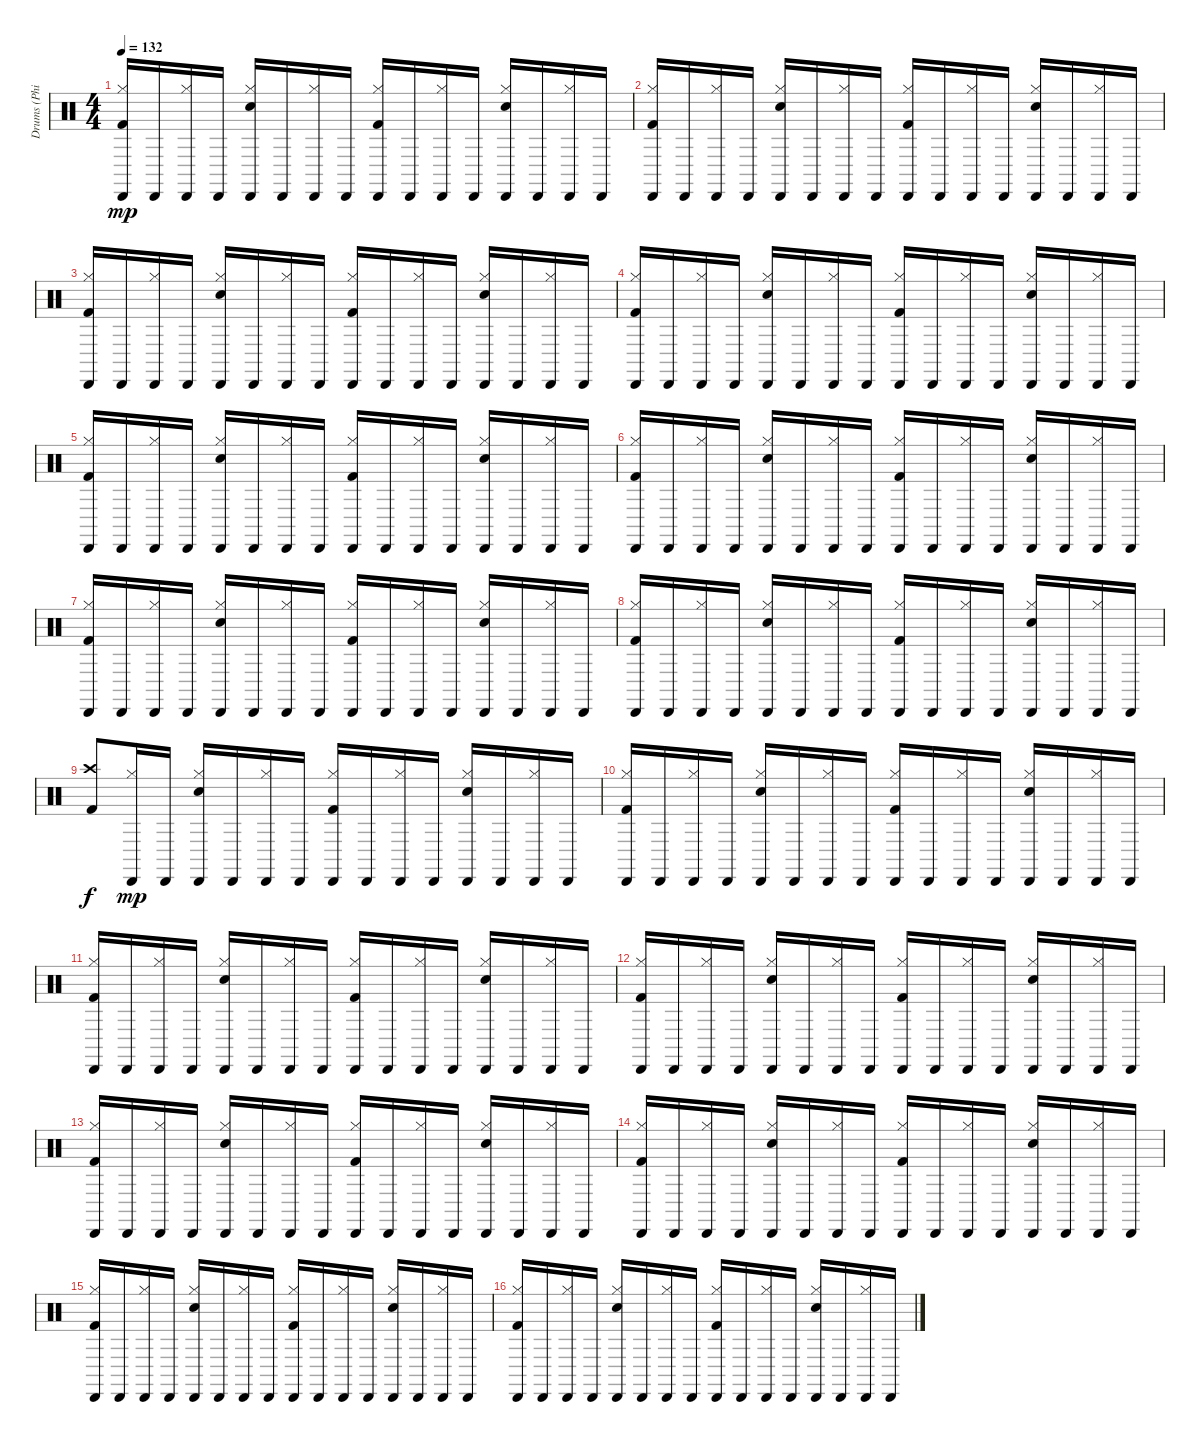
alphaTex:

\track ("Drums (Phil Rudd)" "Drums (Phi") {instrument percussion}
\staff {score}
\articulation defaults
\ts (4 4)
\tempo 132
\clef neutral
\ks c
("Hi-Hat (closed)" "Cabasa (hit)" "Kick (hit) 2").16{dy mp} "Cabasa (hit)".16 ("Hi-Hat (closed)" "Cabasa (hit)").16 "Cabasa (hit)".16 ("Hi-Hat (closed)" "Cabasa (hit)" "Snare (hit) 2").16 "Cabasa (hit)".16 ("Hi-Hat (closed)" "Cabasa (hit)").16 "Cabasa (hit)".16 ("Hi-Hat (closed)" "Cabasa (hit)" "Kick (hit) 2").16 "Cabasa (hit)".16 ("Hi-Hat (closed)" "Cabasa (hit)").16 "Cabasa (hit)".16 ("Hi-Hat (closed)" "Cabasa (hit)" "Snare (hit) 2").16 "Cabasa (hit)".16 ("Hi-Hat (closed)" "Cabasa (hit)").16 "Cabasa (hit)".16 |
("Hi-Hat (closed)" "Cabasa (hit)" "Kick (hit) 2").16 "Cabasa (hit)".16 ("Hi-Hat (closed)" "Cabasa (hit)").16 "Cabasa (hit)".16 ("Hi-Hat (closed)" "Cabasa (hit)" "Snare (hit) 2").16 "Cabasa (hit)".16 ("Hi-Hat (closed)" "Cabasa (hit)").16 "Cabasa (hit)".16 ("Hi-Hat (closed)" "Cabasa (hit)" "Kick (hit) 2").16 "Cabasa (hit)".16 ("Hi-Hat (closed)" "Cabasa (hit)").16 "Cabasa (hit)".16 ("Hi-Hat (closed)" "Cabasa (hit)" "Snare (hit) 2").16 "Cabasa (hit)".16 ("Hi-Hat (closed)" "Cabasa (hit)").16 "Cabasa (hit)".16 |
("Hi-Hat (closed)" "Cabasa (hit)" "Kick (hit) 2").16 "Cabasa (hit)".16 ("Hi-Hat (closed)" "Cabasa (hit)").16 "Cabasa (hit)".16 ("Hi-Hat (closed)" "Cabasa (hit)" "Snare (hit) 2").16 "Cabasa (hit)".16 ("Hi-Hat (closed)" "Cabasa (hit)").16 "Cabasa (hit)".16 ("Hi-Hat (closed)" "Cabasa (hit)" "Kick (hit) 2").16 "Cabasa (hit)".16 ("Hi-Hat (closed)" "Cabasa (hit)").16 "Cabasa (hit)".16 ("Hi-Hat (closed)" "Cabasa (hit)" "Snare (hit) 2").16 "Cabasa (hit)".16 ("Hi-Hat (closed)" "Cabasa (hit)").16 "Cabasa (hit)".16 |
("Hi-Hat (closed)" "Cabasa (hit)" "Kick (hit) 2").16 "Cabasa (hit)".16 ("Hi-Hat (closed)" "Cabasa (hit)").16 "Cabasa (hit)".16 ("Hi-Hat (closed)" "Cabasa (hit)" "Snare (hit) 2").16 "Cabasa (hit)".16 ("Hi-Hat (closed)" "Cabasa (hit)").16 "Cabasa (hit)".16 ("Hi-Hat (closed)" "Cabasa (hit)" "Kick (hit) 2").16 "Cabasa (hit)".16 ("Hi-Hat (closed)" "Cabasa (hit)").16 "Cabasa (hit)".16 ("Hi-Hat (closed)" "Cabasa (hit)" "Snare (hit) 2").16 "Cabasa (hit)".16 ("Hi-Hat (closed)" "Cabasa (hit)").16 "Cabasa (hit)".16 |
("Hi-Hat (closed)" "Cabasa (hit)" "Kick (hit) 2").16 "Cabasa (hit)".16 ("Hi-Hat (closed)" "Cabasa (hit)").16 "Cabasa (hit)".16 ("Hi-Hat (closed)" "Cabasa (hit)" "Snare (hit) 2").16 "Cabasa (hit)".16 ("Hi-Hat (closed)" "Cabasa (hit)").16 "Cabasa (hit)".16 ("Hi-Hat (closed)" "Cabasa (hit)" "Kick (hit) 2").16 "Cabasa (hit)".16 ("Hi-Hat (closed)" "Cabasa (hit)").16 "Cabasa (hit)".16 ("Hi-Hat (closed)" "Cabasa (hit)" "Snare (hit) 2").16 "Cabasa (hit)".16 ("Hi-Hat (closed)" "Cabasa (hit)").16 "Cabasa (hit)".16 |
("Hi-Hat (closed)" "Cabasa (hit)" "Kick (hit) 2").16 "Cabasa (hit)".16 ("Hi-Hat (closed)" "Cabasa (hit)").16 "Cabasa (hit)".16 ("Hi-Hat (closed)" "Cabasa (hit)" "Snare (hit) 2").16 "Cabasa (hit)".16 ("Hi-Hat (closed)" "Cabasa (hit)").16 "Cabasa (hit)".16 ("Hi-Hat (closed)" "Cabasa (hit)" "Kick (hit) 2").16 "Cabasa (hit)".16 ("Hi-Hat (closed)" "Cabasa (hit)").16 "Cabasa (hit)".16 ("Hi-Hat (closed)" "Cabasa (hit)" "Snare (hit) 2").16 "Cabasa (hit)".16 ("Hi-Hat (closed)" "Cabasa (hit)").16 "Cabasa (hit)".16 |
("Hi-Hat (closed)" "Cabasa (hit)" "Kick (hit) 2").16 "Cabasa (hit)".16 ("Hi-Hat (closed)" "Cabasa (hit)").16 "Cabasa (hit)".16 ("Hi-Hat (closed)" "Cabasa (hit)" "Snare (hit) 2").16 "Cabasa (hit)".16 ("Hi-Hat (closed)" "Cabasa (hit)").16 "Cabasa (hit)".16 ("Hi-Hat (closed)" "Cabasa (hit)" "Kick (hit) 2").16 "Cabasa (hit)".16 ("Hi-Hat (closed)" "Cabasa (hit)").16 "Cabasa (hit)".16 ("Hi-Hat (closed)" "Cabasa (hit)" "Snare (hit) 2").16 "Cabasa (hit)".16 ("Hi-Hat (closed)" "Cabasa (hit)").16 "Cabasa (hit)".16 |
("Hi-Hat (closed)" "Cabasa (hit)" "Kick (hit) 2").16 "Cabasa (hit)".16 ("Hi-Hat (closed)" "Cabasa (hit)").16 "Cabasa (hit)".16 ("Hi-Hat (closed)" "Cabasa (hit)" "Snare (hit) 2").16 "Cabasa (hit)".16 ("Hi-Hat (closed)" "Cabasa (hit)").16 "Cabasa (hit)".16 ("Hi-Hat (closed)" "Cabasa (hit)" "Kick (hit) 2").16 "Cabasa (hit)".16 ("Hi-Hat (closed)" "Cabasa (hit)").16 "Cabasa (hit)".16 ("Hi-Hat (closed)" "Cabasa (hit)" "Snare (hit) 2").16 "Cabasa (hit)".16 ("Hi-Hat (closed)" "Cabasa (hit)").16 "Cabasa (hit)".16 |
("Crash high (hit)" "Kick (hit) 2").8{dy f} ("Hi-Hat (closed)" "Cabasa (hit)").16{dy mp} "Cabasa (hit)".16 ("Hi-Hat (closed)" "Cabasa (hit)" "Snare (hit) 2").16 "Cabasa (hit)".16 ("Hi-Hat (closed)" "Cabasa (hit)").16 "Cabasa (hit)".16 ("Hi-Hat (closed)" "Cabasa (hit)" "Kick (hit) 2").16 "Cabasa (hit)".16 ("Hi-Hat (closed)" "Cabasa (hit)").16 "Cabasa (hit)".16 ("Hi-Hat (closed)" "Cabasa (hit)" "Snare (hit) 2").16 "Cabasa (hit)".16 ("Hi-Hat (closed)" "Cabasa (hit)").16 "Cabasa (hit)".16 |
("Hi-Hat (closed)" "Cabasa (hit)" "Kick (hit) 2").16 "Cabasa (hit)".16 ("Hi-Hat (closed)" "Cabasa (hit)").16 "Cabasa (hit)".16 ("Hi-Hat (closed)" "Cabasa (hit)" "Snare (hit) 2").16 "Cabasa (hit)".16 ("Hi-Hat (closed)" "Cabasa (hit)").16 "Cabasa (hit)".16 ("Hi-Hat (closed)" "Cabasa (hit)" "Kick (hit) 2").16 "Cabasa (hit)".16 ("Hi-Hat (closed)" "Cabasa (hit)").16 "Cabasa (hit)".16 ("Hi-Hat (closed)" "Cabasa (hit)" "Snare (hit) 2").16 "Cabasa (hit)".16 ("Hi-Hat (closed)" "Cabasa (hit)").16 "Cabasa (hit)".16 |
("Hi-Hat (closed)" "Cabasa (hit)" "Kick (hit) 2").16 "Cabasa (hit)".16 ("Hi-Hat (closed)" "Cabasa (hit)").16 "Cabasa (hit)".16 ("Hi-Hat (closed)" "Cabasa (hit)" "Snare (hit) 2").16 "Cabasa (hit)".16 ("Hi-Hat (closed)" "Cabasa (hit)").16 "Cabasa (hit)".16 ("Hi-Hat (closed)" "Cabasa (hit)" "Kick (hit) 2").16 "Cabasa (hit)".16 ("Hi-Hat (closed)" "Cabasa (hit)").16 "Cabasa (hit)".16 ("Hi-Hat (closed)" "Cabasa (hit)" "Snare (hit) 2").16 "Cabasa (hit)".16 ("Hi-Hat (closed)" "Cabasa (hit)").16 "Cabasa (hit)".16 |
("Hi-Hat (closed)" "Cabasa (hit)" "Kick (hit) 2").16 "Cabasa (hit)".16 ("Hi-Hat (closed)" "Cabasa (hit)").16 "Cabasa (hit)".16 ("Hi-Hat (closed)" "Cabasa (hit)" "Snare (hit) 2").16 "Cabasa (hit)".16 ("Hi-Hat (closed)" "Cabasa (hit)").16 "Cabasa (hit)".16 ("Hi-Hat (closed)" "Cabasa (hit)" "Kick (hit) 2").16 "Cabasa (hit)".16 ("Hi-Hat (closed)" "Cabasa (hit)").16 "Cabasa (hit)".16 ("Hi-Hat (closed)" "Cabasa (hit)" "Snare (hit) 2").16 "Cabasa (hit)".16 ("Hi-Hat (closed)" "Cabasa (hit)").16 "Cabasa (hit)".16 |
("Hi-Hat (closed)" "Cabasa (hit)" "Kick (hit) 2").16 "Cabasa (hit)".16 ("Hi-Hat (closed)" "Cabasa (hit)").16 "Cabasa (hit)".16 ("Hi-Hat (closed)" "Cabasa (hit)" "Snare (hit) 2").16 "Cabasa (hit)".16 ("Hi-Hat (closed)" "Cabasa (hit)").16 "Cabasa (hit)".16 ("Hi-Hat (closed)" "Cabasa (hit)" "Kick (hit) 2").16 "Cabasa (hit)".16 ("Hi-Hat (closed)" "Cabasa (hit)").16 "Cabasa (hit)".16 ("Hi-Hat (closed)" "Cabasa (hit)" "Snare (hit) 2").16 "Cabasa (hit)".16 ("Hi-Hat (closed)" "Cabasa (hit)").16 "Cabasa (hit)".16 |
("Hi-Hat (closed)" "Cabasa (hit)" "Kick (hit) 2").16 "Cabasa (hit)".16 ("Hi-Hat (closed)" "Cabasa (hit)").16 "Cabasa (hit)".16 ("Hi-Hat (closed)" "Cabasa (hit)" "Snare (hit) 2").16 "Cabasa (hit)".16 ("Hi-Hat (closed)" "Cabasa (hit)").16 "Cabasa (hit)".16 ("Hi-Hat (closed)" "Cabasa (hit)" "Kick (hit) 2").16 "Cabasa (hit)".16 ("Hi-Hat (closed)" "Cabasa (hit)").16 "Cabasa (hit)".16 ("Hi-Hat (closed)" "Cabasa (hit)" "Snare (hit) 2").16 "Cabasa (hit)".16 ("Hi-Hat (closed)" "Cabasa (hit)").16 "Cabasa (hit)".16 |
("Hi-Hat (closed)" "Cabasa (hit)" "Kick (hit) 2").16 "Cabasa (hit)".16 ("Hi-Hat (closed)" "Cabasa (hit)").16 "Cabasa (hit)".16 ("Hi-Hat (closed)" "Cabasa (hit)" "Snare (hit) 2").16 "Cabasa (hit)".16 ("Hi-Hat (closed)" "Cabasa (hit)").16 "Cabasa (hit)".16 ("Hi-Hat (closed)" "Cabasa (hit)" "Kick (hit) 2").16 "Cabasa (hit)".16 ("Hi-Hat (closed)" "Cabasa (hit)").16 "Cabasa (hit)".16 ("Hi-Hat (closed)" "Cabasa (hit)" "Snare (hit) 2").16 "Cabasa (hit)".16 ("Hi-Hat (closed)" "Cabasa (hit)").16 "Cabasa (hit)".16 |
("Hi-Hat (closed)" "Cabasa (hit)" "Kick (hit) 2").16 "Cabasa (hit)".16 ("Hi-Hat (closed)" "Cabasa (hit)").16 "Cabasa (hit)".16 ("Hi-Hat (closed)" "Cabasa (hit)" "Snare (hit) 2").16 "Cabasa (hit)".16 ("Hi-Hat (closed)" "Cabasa (hit)").16 "Cabasa (hit)".16 ("Hi-Hat (closed)" "Cabasa (hit)" "Kick (hit) 2").16 "Cabasa (hit)".16 ("Hi-Hat (closed)" "Cabasa (hit)").16 "Cabasa (hit)".16 ("Hi-Hat (closed)" "Cabasa (hit)" "Snare (hit) 2").16 "Cabasa (hit)".16 ("Hi-Hat (closed)" "Cabasa (hit)").16 "Cabasa (hit)".16
